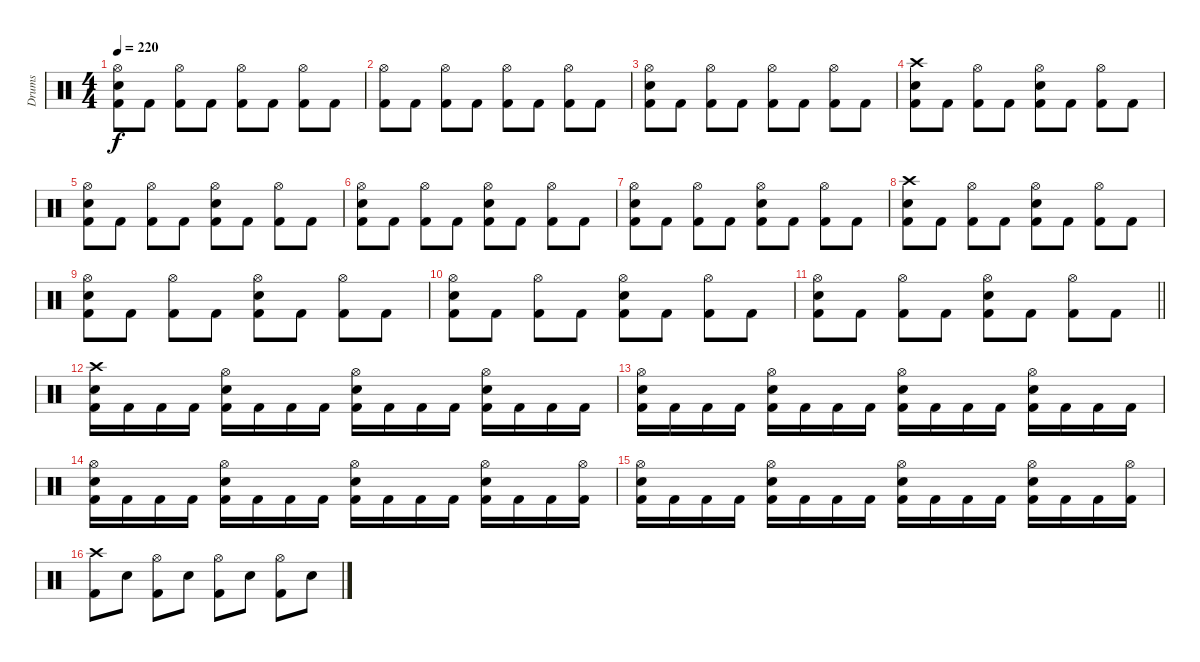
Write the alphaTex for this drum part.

\track ("Drums" "Drums") {instrument percussion}
\staff {score}
\articulation defaults
\ts (4 4)
\tempo 220
\clef neutral
\ks c
("Hi-Hat (open)" "Electric Snare (hit)" "Kick (hit) 2").8{dy f} "Kick (hit) 2".8 ("Hi-Hat (open)" "Kick (hit) 2").8 "Kick (hit) 2".8 ("Hi-Hat (open)" "Kick (hit) 2").8 "Kick (hit) 2".8 ("Hi-Hat (open)" "Kick (hit) 2").8 "Kick (hit) 2".8 |
("Hi-Hat (open)" "Kick (hit) 2").8 "Kick (hit) 2".8 ("Hi-Hat (open)" "Kick (hit) 2").8 "Kick (hit) 2".8 ("Hi-Hat (open)" "Kick (hit) 2").8 "Kick (hit) 2".8 ("Hi-Hat (open)" "Kick (hit) 2").8 "Kick (hit) 2".8 |
("Hi-Hat (open)" "Electric Snare (hit)" "Kick (hit) 2").8 "Kick (hit) 2".8 ("Hi-Hat (open)" "Kick (hit) 2").8 "Kick (hit) 2".8 ("Hi-Hat (open)" "Kick (hit) 2").8 "Kick (hit) 2".8 ("Hi-Hat (open)" "Kick (hit) 2").8 "Kick (hit) 2".8 |
("Crash high (hit)" "Electric Snare (hit)" "Kick (hit) 2").8 "Kick (hit) 2".8 ("Hi-Hat (open)" "Kick (hit) 2").8 "Kick (hit) 2".8 ("Hi-Hat (open)" "Electric Snare (hit)" "Kick (hit) 2").8 "Kick (hit) 2".8 ("Hi-Hat (open)" "Kick (hit) 2").8 "Kick (hit) 2".8 |
("Hi-Hat (open)" "Electric Snare (hit)" "Kick (hit) 2").8 "Kick (hit) 2".8 ("Hi-Hat (open)" "Kick (hit) 2").8 "Kick (hit) 2".8 ("Hi-Hat (open)" "Electric Snare (hit)" "Kick (hit) 2").8 "Kick (hit) 2".8 ("Hi-Hat (open)" "Kick (hit) 2").8 "Kick (hit) 2".8 |
("Hi-Hat (open)" "Electric Snare (hit)" "Kick (hit) 2").8 "Kick (hit) 2".8 ("Hi-Hat (open)" "Kick (hit) 2").8 "Kick (hit) 2".8 ("Hi-Hat (open)" "Electric Snare (hit)" "Kick (hit) 2").8 "Kick (hit) 2".8 ("Hi-Hat (open)" "Kick (hit) 2").8 "Kick (hit) 2".8 |
("Hi-Hat (open)" "Electric Snare (hit)" "Kick (hit) 2").8 "Kick (hit) 2".8 ("Hi-Hat (open)" "Kick (hit) 2").8 "Kick (hit) 2".8 ("Hi-Hat (open)" "Electric Snare (hit)" "Kick (hit) 2").8 "Kick (hit) 2".8 ("Hi-Hat (open)" "Kick (hit) 2").8 "Kick (hit) 2".8 |
("Crash high (hit)" "Electric Snare (hit)" "Kick (hit) 2").8 "Kick (hit) 2".8 ("Hi-Hat (open)" "Kick (hit) 2").8 "Kick (hit) 2".8 ("Hi-Hat (open)" "Electric Snare (hit)" "Kick (hit) 2").8 "Kick (hit) 2".8 ("Hi-Hat (open)" "Kick (hit) 2").8 "Kick (hit) 2".8 |
("Hi-Hat (open)" "Electric Snare (hit)" "Kick (hit) 2").8 "Kick (hit) 2".8 ("Hi-Hat (open)" "Kick (hit) 2").8 "Kick (hit) 2".8 ("Hi-Hat (open)" "Electric Snare (hit)" "Kick (hit) 2").8 "Kick (hit) 2".8 ("Hi-Hat (open)" "Kick (hit) 2").8 "Kick (hit) 2".8 |
("Hi-Hat (open)" "Electric Snare (hit)" "Kick (hit) 2").8 "Kick (hit) 2".8 ("Hi-Hat (open)" "Kick (hit) 2").8 "Kick (hit) 2".8 ("Hi-Hat (open)" "Electric Snare (hit)" "Kick (hit) 2").8 "Kick (hit) 2".8 ("Hi-Hat (open)" "Kick (hit) 2").8 "Kick (hit) 2".8 |
\barLineRight lightlight
("Hi-Hat (open)" "Electric Snare (hit)" "Kick (hit) 2").8 "Kick (hit) 2".8 ("Hi-Hat (open)" "Kick (hit) 2").8 "Kick (hit) 2".8 ("Hi-Hat (open)" "Electric Snare (hit)" "Kick (hit) 2").8 "Kick (hit) 2".8 ("Hi-Hat (open)" "Kick (hit) 2").8 "Kick (hit) 2".8 |
("Crash high (hit)" "Electric Snare (hit)" "Kick (hit) 2").16 "Kick (hit) 2".16 "Kick (hit) 2".16 "Kick (hit) 2".16 ("Hi-Hat (open)" "Electric Snare (hit)" "Kick (hit) 2").16 "Kick (hit) 2".16 "Kick (hit) 2".16 "Kick (hit) 2".16 ("Hi-Hat (open)" "Electric Snare (hit)" "Kick (hit) 2").16 "Kick (hit) 2".16 "Kick (hit) 2".16 "Kick (hit) 2".16 ("Hi-Hat (open)" "Electric Snare (hit)" "Kick (hit) 2").16 "Kick (hit) 2".16 "Kick (hit) 2".16 "Kick (hit) 2".16 |
("Hi-Hat (open)" "Electric Snare (hit)" "Kick (hit) 2").16 "Kick (hit) 2".16 "Kick (hit) 2".16 "Kick (hit) 2".16 ("Hi-Hat (open)" "Electric Snare (hit)" "Kick (hit) 2").16 "Kick (hit) 2".16 "Kick (hit) 2".16 "Kick (hit) 2".16 ("Hi-Hat (open)" "Electric Snare (hit)" "Kick (hit) 2").16 "Kick (hit) 2".16 "Kick (hit) 2".16 "Kick (hit) 2".16 ("Hi-Hat (open)" "Electric Snare (hit)" "Kick (hit) 2").16 "Kick (hit) 2".16 "Kick (hit) 2".16 "Kick (hit) 2".16 |
("Hi-Hat (open)" "Electric Snare (hit)" "Kick (hit) 2").16 "Kick (hit) 2".16 "Kick (hit) 2".16 "Kick (hit) 2".16 ("Hi-Hat (open)" "Electric Snare (hit)" "Kick (hit) 2").16 "Kick (hit) 2".16 "Kick (hit) 2".16 "Kick (hit) 2".16 ("Hi-Hat (open)" "Electric Snare (hit)" "Kick (hit) 2").16 "Kick (hit) 2".16 "Kick (hit) 2".16 "Kick (hit) 2".16 ("Hi-Hat (open)" "Electric Snare (hit)" "Kick (hit) 2").16 "Kick (hit) 2".16 "Kick (hit) 2".16 ("Hi-Hat (open)" "Kick (hit) 2").16 |
("Hi-Hat (open)" "Electric Snare (hit)" "Kick (hit) 2").16 "Kick (hit) 2".16 "Kick (hit) 2".16 "Kick (hit) 2".16 ("Hi-Hat (open)" "Electric Snare (hit)" "Kick (hit) 2").16 "Kick (hit) 2".16 "Kick (hit) 2".16 "Kick (hit) 2".16 ("Hi-Hat (open)" "Electric Snare (hit)" "Kick (hit) 2").16 "Kick (hit) 2".16 "Kick (hit) 2".16 "Kick (hit) 2".16 ("Hi-Hat (open)" "Electric Snare (hit)" "Kick (hit) 2").16 "Kick (hit) 2".16 "Kick (hit) 2".16 ("Hi-Hat (open)" "Kick (hit) 2").16 |
("Crash high (hit)" "Kick (hit) 2").8 "Electric Snare (hit)".8 ("Hi-Hat (open)" "Kick (hit) 2").8 "Electric Snare (hit)".8 ("Hi-Hat (open)" "Kick (hit) 2").8 "Electric Snare (hit)".8 ("Hi-Hat (open)" "Kick (hit) 2").8 "Electric Snare (hit)".8
